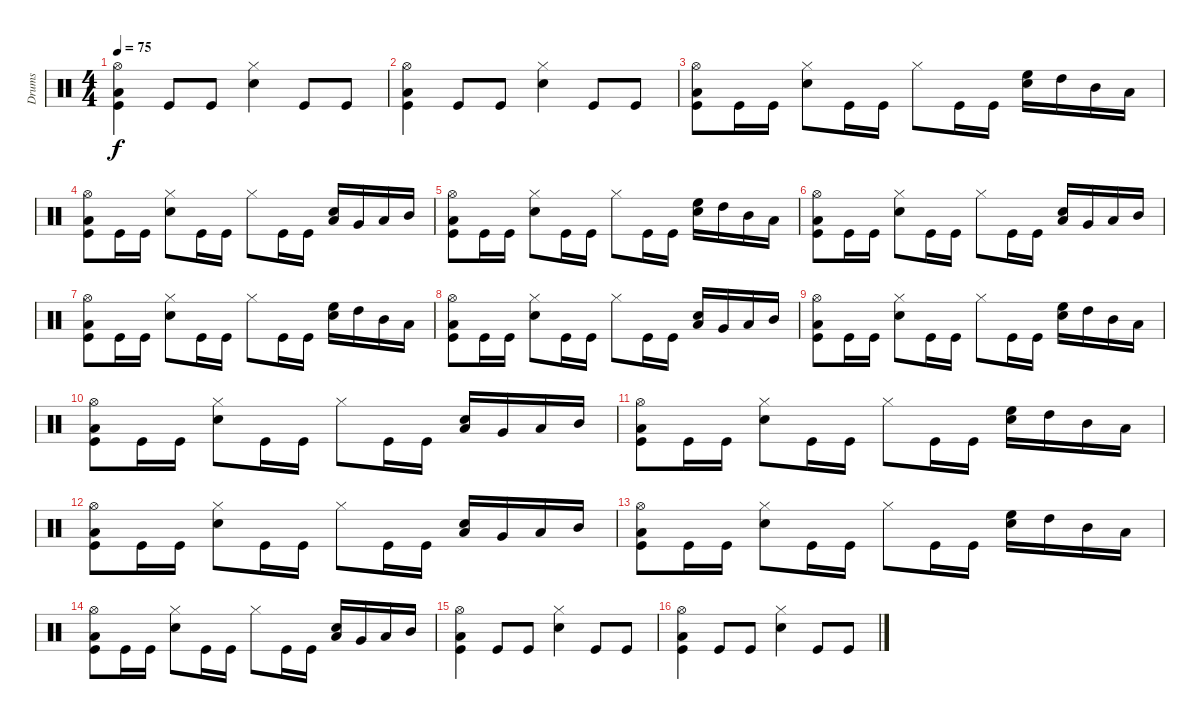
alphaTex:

\track ("Drums" "Drums") {instrument percussion}
\staff {score}
\articulation defaults
\ts (4 4)
\tempo 75
\clef neutral
\ks c
("Hi-Hat (open)" "Low Tom (hit)" "Kick (hit)").4{dy f} "Kick (hit)".8 "Kick (hit)".8 ("Hi-Hat (closed)" "Snare (hit) 2").4 "Kick (hit)".8 "Kick (hit)".8 |
("Hi-Hat (open)" "Low Tom (hit)" "Kick (hit)").4 "Kick (hit)".8 "Kick (hit)".8 ("Hi-Hat (closed)" "Snare (hit) 2").4 "Kick (hit)".8 "Kick (hit)".8 |
("Hi-Hat (open)" "Low Tom (hit)" "Kick (hit)").8 "Kick (hit)".16 "Kick (hit)".16 ("Hi-Hat (closed)" "Snare (hit) 2").8 "Kick (hit)".16 "Kick (hit)".16 "Hi-Hat (closed)".8 "Kick (hit)".16 "Kick (hit)".16 ("Snare (hit) 2" "High Floor Tom (hit)").16 "High Tom (hit)".16 "Mid Tom (hit)".16 "Low Tom (hit)".16 |
("Hi-Hat (open)" "Low Tom (hit)" "Kick (hit)").8 "Kick (hit)".16 "Kick (hit)".16 ("Hi-Hat (closed)" "Snare (hit) 2").8 "Kick (hit)".16 "Kick (hit)".16 "Hi-Hat (closed)".8 "Kick (hit)".16 "Kick (hit)".16 ("Snare (hit) 2" "Low Floor Tom (hit)").16 "Very Low Tom (hit)".16 "Low Tom (hit)".16 "Mid Tom (hit)".16 |
("Hi-Hat (open)" "Low Tom (hit)" "Kick (hit)").8 "Kick (hit)".16 "Kick (hit)".16 ("Hi-Hat (closed)" "Snare (hit) 2").8 "Kick (hit)".16 "Kick (hit)".16 "Hi-Hat (closed)".8 "Kick (hit)".16 "Kick (hit)".16 ("Snare (hit) 2" "High Floor Tom (hit)").16 "High Tom (hit)".16 "Mid Tom (hit)".16 "Low Tom (hit)".16 |
("Hi-Hat (open)" "Low Tom (hit)" "Kick (hit)").8 "Kick (hit)".16 "Kick (hit)".16 ("Hi-Hat (closed)" "Snare (hit) 2").8 "Kick (hit)".16 "Kick (hit)".16 "Hi-Hat (closed)".8 "Kick (hit)".16 "Kick (hit)".16 ("Snare (hit) 2" "Low Floor Tom (hit)").16 "Very Low Tom (hit)".16 "Low Tom (hit)".16 "Mid Tom (hit)".16 |
("Hi-Hat (open)" "Low Tom (hit)" "Kick (hit)").8 "Kick (hit)".16 "Kick (hit)".16 ("Hi-Hat (closed)" "Snare (hit) 2").8 "Kick (hit)".16 "Kick (hit)".16 "Hi-Hat (closed)".8 "Kick (hit)".16 "Kick (hit)".16 ("Snare (hit) 2" "High Floor Tom (hit)").16 "High Tom (hit)".16 "Mid Tom (hit)".16 "Low Tom (hit)".16 |
("Hi-Hat (open)" "Low Tom (hit)" "Kick (hit)").8 "Kick (hit)".16 "Kick (hit)".16 ("Hi-Hat (closed)" "Snare (hit) 2").8 "Kick (hit)".16 "Kick (hit)".16 "Hi-Hat (closed)".8 "Kick (hit)".16 "Kick (hit)".16 ("Snare (hit) 2" "Low Floor Tom (hit)").16 "Very Low Tom (hit)".16 "Low Tom (hit)".16 "Mid Tom (hit)".16 |
("Hi-Hat (open)" "Low Tom (hit)" "Kick (hit)").8 "Kick (hit)".16 "Kick (hit)".16 ("Hi-Hat (closed)" "Snare (hit) 2").8 "Kick (hit)".16 "Kick (hit)".16 "Hi-Hat (closed)".8 "Kick (hit)".16 "Kick (hit)".16 ("Snare (hit) 2" "High Floor Tom (hit)").16 "High Tom (hit)".16 "Mid Tom (hit)".16 "Low Tom (hit)".16 |
("Hi-Hat (open)" "Low Tom (hit)" "Kick (hit)").8 "Kick (hit)".16 "Kick (hit)".16 ("Hi-Hat (closed)" "Snare (hit) 2").8 "Kick (hit)".16 "Kick (hit)".16 "Hi-Hat (closed)".8 "Kick (hit)".16 "Kick (hit)".16 ("Snare (hit) 2" "Low Floor Tom (hit)").16 "Very Low Tom (hit)".16 "Low Tom (hit)".16 "Mid Tom (hit)".16 |
("Hi-Hat (open)" "Low Tom (hit)" "Kick (hit)").8 "Kick (hit)".16 "Kick (hit)".16 ("Hi-Hat (closed)" "Snare (hit) 2").8 "Kick (hit)".16 "Kick (hit)".16 "Hi-Hat (closed)".8 "Kick (hit)".16 "Kick (hit)".16 ("Snare (hit) 2" "High Floor Tom (hit)").16 "High Tom (hit)".16 "Mid Tom (hit)".16 "Low Tom (hit)".16 |
("Hi-Hat (open)" "Low Tom (hit)" "Kick (hit)").8 "Kick (hit)".16 "Kick (hit)".16 ("Hi-Hat (closed)" "Snare (hit) 2").8 "Kick (hit)".16 "Kick (hit)".16 "Hi-Hat (closed)".8 "Kick (hit)".16 "Kick (hit)".16 ("Snare (hit) 2" "Low Floor Tom (hit)").16 "Very Low Tom (hit)".16 "Low Tom (hit)".16 "Mid Tom (hit)".16 |
("Hi-Hat (open)" "Low Tom (hit)" "Kick (hit)").8 "Kick (hit)".16 "Kick (hit)".16 ("Hi-Hat (closed)" "Snare (hit) 2").8 "Kick (hit)".16 "Kick (hit)".16 "Hi-Hat (closed)".8 "Kick (hit)".16 "Kick (hit)".16 ("Snare (hit) 2" "High Floor Tom (hit)").16 "High Tom (hit)".16 "Mid Tom (hit)".16 "Low Tom (hit)".16 |
("Hi-Hat (open)" "Low Tom (hit)" "Kick (hit)").8 "Kick (hit)".16 "Kick (hit)".16 ("Hi-Hat (closed)" "Snare (hit) 2").8 "Kick (hit)".16 "Kick (hit)".16 "Hi-Hat (closed)".8 "Kick (hit)".16 "Kick (hit)".16 ("Snare (hit) 2" "Low Floor Tom (hit)").16 "Very Low Tom (hit)".16 "Low Tom (hit)".16 "Mid Tom (hit)".16 |
("Hi-Hat (open)" "Low Tom (hit)" "Kick (hit)").4 "Kick (hit)".8 "Kick (hit)".8 ("Hi-Hat (closed)" "Snare (hit) 2").4 "Kick (hit)".8 "Kick (hit)".8 |
("Hi-Hat (open)" "Low Tom (hit)" "Kick (hit)").4 "Kick (hit)".8 "Kick (hit)".8 ("Hi-Hat (closed)" "Snare (hit) 2").4 "Kick (hit)".8 "Kick (hit)".8
